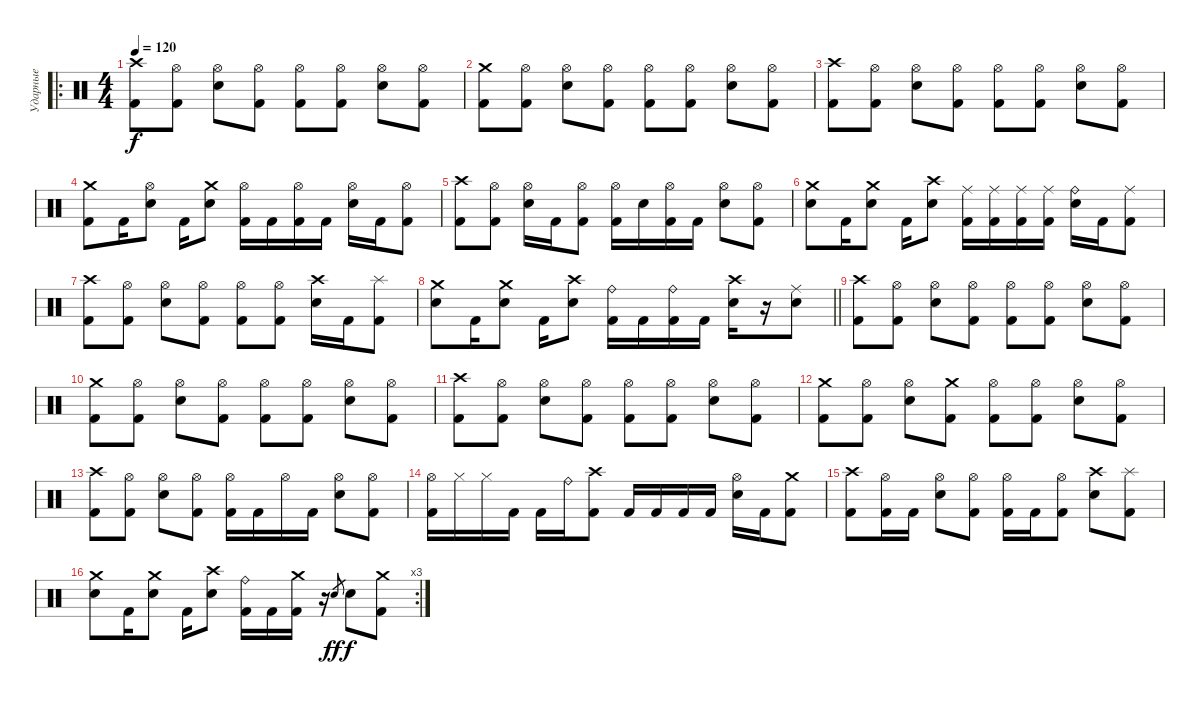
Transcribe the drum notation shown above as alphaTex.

\track ("Ударные" "Ударные") {instrument percussion}
\staff {score}
\articulation defaults
\ro
\ts (4 4)
\tempo 120
\clef neutral
\ks c
("Crash high (hit)" "Kick (hit) 2").8{dy f} ("Hi-Hat (open)" "Kick (hit) 2").8 ("Hi-Hat (open)" "Electric Snare (hit)").8 ("Hi-Hat (open)" "Kick (hit) 2").8 ("Hi-Hat (open)" "Kick (hit) 2").8 ("Hi-Hat (open)" "Kick (hit) 2").8 ("Hi-Hat (open)" "Electric Snare (hit)").8 ("Hi-Hat (open)" "Kick (hit) 2").8 |
("Crash medium (hit)" "Kick (hit) 2").8 ("Hi-Hat (open)" "Kick (hit) 2").8 ("Hi-Hat (open)" "Electric Snare (hit)").8 ("Hi-Hat (open)" "Kick (hit) 2").8 ("Hi-Hat (open)" "Kick (hit) 2").8 ("Hi-Hat (open)" "Kick (hit) 2").8 ("Hi-Hat (open)" "Electric Snare (hit)").8 ("Hi-Hat (open)" "Kick (hit) 2").8 |
("Crash high (hit)" "Kick (hit) 2").8 ("Hi-Hat (open)" "Kick (hit) 2").8 ("Hi-Hat (open)" "Electric Snare (hit)").8 ("Hi-Hat (open)" "Kick (hit) 2").8 ("Hi-Hat (open)" "Kick (hit) 2").8 ("Hi-Hat (open)" "Kick (hit) 2").8 ("Hi-Hat (open)" "Electric Snare (hit)").8 ("Hi-Hat (open)" "Kick (hit) 2").8 |
("Crash medium (hit)" "Kick (hit) 2").8 "Kick (hit) 2".16 ("Hi-Hat (open)" "Electric Snare (hit)").8 "Kick (hit) 2".16 ("Crash medium (hit)" "Electric Snare (hit)").8 ("Hi-Hat (open)" "Kick (hit) 2").16 "Kick (hit) 2".16 ("Hi-Hat (open)" "Kick (hit) 2").16 "Kick (hit) 2".16 ("Hi-Hat (open)" "Electric Snare (hit)").16 "Kick (hit) 2".16 ("Hi-Hat (open)" "Kick (hit) 2").8 |
("Crash high (hit)" "Kick (hit) 2").8 ("Hi-Hat (open)" "Kick (hit) 2").8 ("Hi-Hat (open)" "Electric Snare (hit)").16 "Kick (hit) 2".16 ("Hi-Hat (open)" "Kick (hit) 2").8 ("Hi-Hat (open)" "Kick (hit) 2").16 "Electric Snare (hit)".16 ("Hi-Hat (open)" "Kick (hit) 2").16 "Kick (hit) 2".16 ("Hi-Hat (open)" "Electric Snare (hit)").8 ("Hi-Hat (open)" "Kick (hit) 2").8 |
("Crash medium (hit)" "Electric Snare (hit)").8 "Kick (hit) 2".16 ("Crash medium (hit)" "Electric Snare (hit)").8 "Kick (hit) 2".16 ("Crash high (hit)" "Electric Snare (hit)").8 ("Ride (middle)" "Kick (hit) 2").16 ("Ride (middle)" "Kick (hit) 2").16 ("Ride (middle)" "Kick (hit) 2").16 ("Ride (middle)" "Kick (hit) 2").16 ("Ride (bell)" "Electric Snare (hit)").16 "Kick (hit) 2".16 ("Ride (middle)" "Kick (hit) 2").8 |
("Crash high (hit)" "Kick (hit) 2").8 ("Hi-Hat (open)" "Kick (hit) 2").8 ("Hi-Hat (open)" "Electric Snare (hit)").8 ("Hi-Hat (open)" "Kick (hit) 2").8 ("Hi-Hat (open)" "Kick (hit) 2").8 ("Hi-Hat (open)" "Kick (hit) 2").8 ("Crash high (hit)" "Electric Snare (hit)").16 "Kick (hit) 2".16 ("Splash (hit)" "Kick (hit) 2").8 |
\barLineRight lightlight
("Crash medium (hit)" "Electric Snare (hit)").8 "Kick (hit) 2".16 ("Crash medium (hit)" "Electric Snare (hit)").8 "Kick (hit) 2".16 ("Crash high (hit)" "Electric Snare (hit)").8 ("Ride (bell)" "Kick (hit) 2").16 "Kick (hit) 2".16 ("Ride (bell)" "Kick (hit) 2").16 "Kick (hit) 2".16 ("Crash high (hit)" "Electric Snare (hit)").16 r.16 ("Ride (middle)" "Electric Snare (hit)").8 |
("Crash high (hit)" "Kick (hit) 2").8 ("Hi-Hat (open)" "Kick (hit) 2").8 ("Hi-Hat (open)" "Electric Snare (hit)").8 ("Hi-Hat (open)" "Kick (hit) 2").8 ("Hi-Hat (open)" "Kick (hit) 2").8 ("Hi-Hat (open)" "Kick (hit) 2").8 ("Hi-Hat (open)" "Electric Snare (hit)").8 ("Hi-Hat (open)" "Kick (hit) 2").8 |
("Crash medium (hit)" "Kick (hit) 2").8 ("Hi-Hat (open)" "Kick (hit) 2").8 ("Hi-Hat (open)" "Electric Snare (hit)").8 ("Hi-Hat (open)" "Kick (hit) 2").8 ("Hi-Hat (open)" "Kick (hit) 2").8 ("Hi-Hat (open)" "Kick (hit) 2").8 ("Hi-Hat (open)" "Electric Snare (hit)").8 ("Hi-Hat (open)" "Kick (hit) 2").8 |
("Crash high (hit)" "Kick (hit) 2").8 ("Hi-Hat (open)" "Kick (hit) 2").8 ("Hi-Hat (open)" "Electric Snare (hit)").8 ("Hi-Hat (open)" "Kick (hit) 2").8 ("Hi-Hat (open)" "Kick (hit) 2").8 ("Hi-Hat (open)" "Kick (hit) 2").8 ("Hi-Hat (open)" "Electric Snare (hit)").8 ("Hi-Hat (open)" "Kick (hit) 2").8 |
("Crash medium (hit)" "Kick (hit) 2").8 ("Hi-Hat (open)" "Kick (hit) 2").8 ("Hi-Hat (open)" "Electric Snare (hit)").8 ("Crash medium (hit)" "Kick (hit) 2").8 ("Hi-Hat (open)" "Kick (hit) 2").8 ("Hi-Hat (open)" "Kick (hit) 2").8 ("Hi-Hat (open)" "Electric Snare (hit)").8 ("Hi-Hat (open)" "Kick (hit) 2").8 |
("Crash high (hit)" "Kick (hit) 2").8 ("Hi-Hat (open)" "Kick (hit) 2").8 ("Hi-Hat (open)" "Electric Snare (hit)").8 ("Hi-Hat (open)" "Kick (hit) 2").8 ("Hi-Hat (open)" "Kick (hit) 2").16 "Kick (hit) 2".16 "Hi-Hat (open)".16 "Kick (hit) 2".16 ("Hi-Hat (open)" "Electric Snare (hit)").8 ("Hi-Hat (open)" "Kick (hit) 2").8 |
("Hi-Hat (open)" "Kick (hit) 2").16 "Hi-Hat (closed)".16 "Hi-Hat (closed)".16 "Kick (hit) 2".16 "Kick (hit) 2".16 "Ride (bell)".16 ("Crash high (hit)" "Kick (hit) 2").8 "Kick (hit) 2".16 "Kick (hit) 2".16 "Kick (hit) 2".16 "Kick (hit) 2".16 ("Hi-Hat (open)" "Electric Snare (hit)").16 "Kick (hit) 2".16 ("Crash medium (hit)" "Kick (hit) 2").8 |
("Crash high (hit)" "Kick (hit) 2").8 ("Hi-Hat (open)" "Kick (hit) 2").16 "Kick (hit) 2".16 ("Hi-Hat (open)" "Electric Snare (hit)").8 ("Hi-Hat (open)" "Kick (hit) 2").8 ("Hi-Hat (open)" "Kick (hit) 2").16 "Kick (hit) 2".16 ("Hi-Hat (open)" "Kick (hit) 2").8 ("Crash high (hit)" "Electric Snare (hit)").8 ("Splash (hit)" "Kick (hit) 2").8 |
\rc 3
("Crash medium (hit)" "Electric Snare (hit)").8 "Kick (hit) 2".16 ("Crash medium (hit)" "Electric Snare (hit)").8 "Kick (hit) 2".16 ("Crash high (hit)" "Electric Snare (hit)").8 ("Ride (bell)" "Kick (hit) 2").16 "Kick (hit) 2".16 ("Crash medium (hit)" "Kick (hit) 2").16 r.16 "Electric Snare (hit)".8{gr dy ff} "Electric Snare (hit)".8{dy f} ("Crash medium (hit)" "Kick (hit) 2").8
